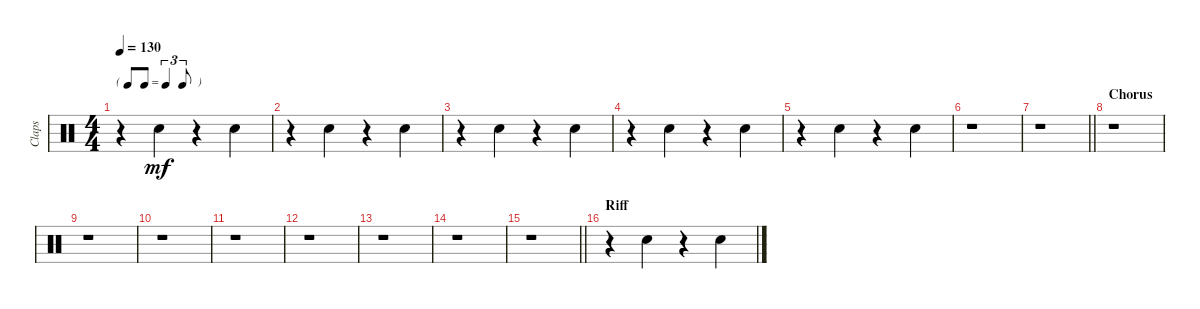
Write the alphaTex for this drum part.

\track ("Claps" "Claps") {instrument percussion}
\staff {score}
\articulation defaults
\ts (4 4)
\tf triplet8th
\tempo 130
\clef neutral
\ks c
r.4{dy mf} "Hand Clap (hit)".4 r.4 "Hand Clap (hit)".4 |
r.4 "Hand Clap (hit)".4 r.4 "Hand Clap (hit)".4 |
r.4 "Hand Clap (hit)".4 r.4 "Hand Clap (hit)".4 |
r.4 "Hand Clap (hit)".4 r.4 "Hand Clap (hit)".4 |
r.4 "Hand Clap (hit)".4 r.4 "Hand Clap (hit)".4 |
r.1 |
\barLineRight lightlight
r.1 |
\section ("" "Chorus")
r.1 |
r.1 |
r.1 |
r.1 |
r.1 |
r.1 |
r.1 |
\barLineRight lightlight
r.1 |
\section ("" "Riff")
r.4 "Hand Clap (hit)".4 r.4 "Hand Clap (hit)".4
